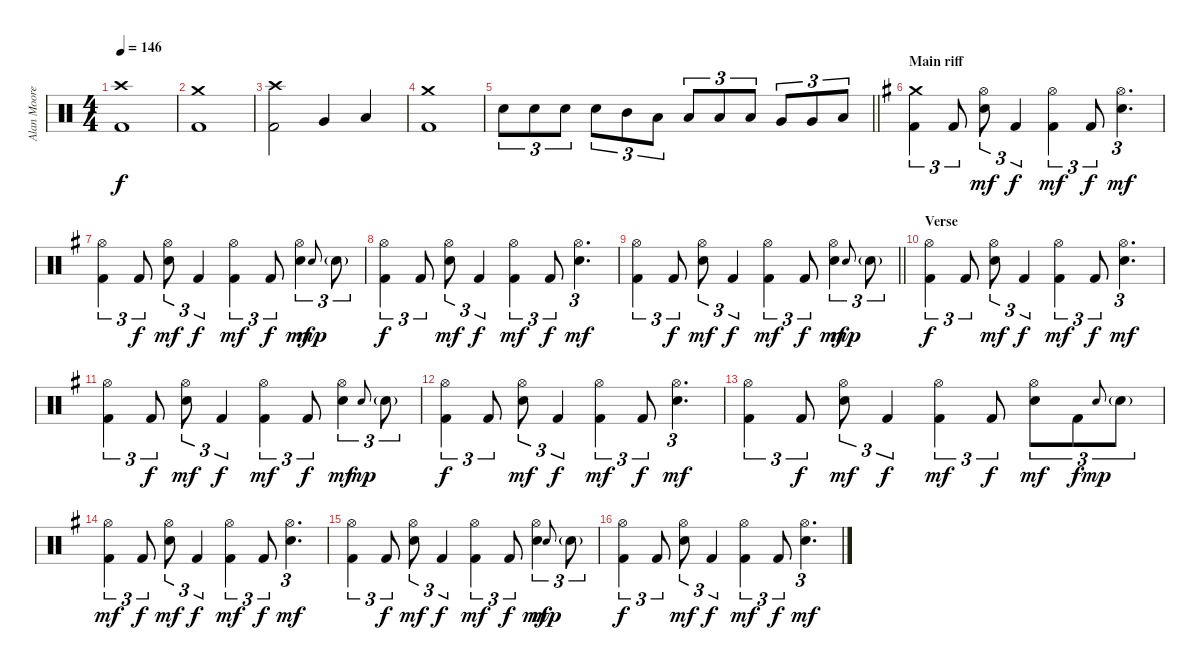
\track ("Alan Moore" "Alan Moore") {instrument percussion}
\staff {score}
\articulation defaults
\ts (4 4)
\tempo 146
\clef neutral
\ks c
("Crash high (hit)" "Kick (hit) 2").1{dy f} |
("Crash medium (hit)" "Kick (hit) 2").1 |
("Crash high (hit)" "Kick (hit) 2").2 "Very Low Tom (hit)".4 "Low Floor Tom (hit)".4 |
("Crash medium (hit)" "Kick (hit) 2").1 |
\barLineRight lightlight "Electric Snare (hit)".8{tu (3 2)} "Electric Snare (hit)".8{tu (3 2)} "Electric Snare (hit)".8{tu (3 2)} "Electric Snare (hit)".8{tu (3 2)} "Mid Tom (hit)".8{tu (3 2)} "Low Floor Tom (hit)".8{tu (3 2)} "Low Tom (hit)".8{tu (3 2)} "Low Tom (hit)".8{tu (3 2)} "Low Floor Tom (hit)".8{tu (3 2)} "Very Low Tom (hit)".8{tu (3 2)} "Very Low Tom (hit)".8{tu (3 2)} "Low Floor Tom (hit)".8{tu (3 2)}
|
\section ("" "Main riff")
\ks eminor
("Crash medium (hit)" "Kick (hit) 2").4{tu (3 2)} "Kick (hit) 2".8{tu (3 2)} ("Hi-Hat (open)" "Electric Snare (hit)").8{tu (3 2) dy mf} "Kick (hit) 2".4{tu (3 2) dy f} ("Hi-Hat (open)" "Kick (hit) 2").4{tu (3 2) dy mf} "Kick (hit) 2".8{tu (3 2) dy f} ("Hi-Hat (open)" "Electric Snare (hit)").4{d tu (3 2) dy mf} |
("Hi-Hat (open)" "Kick (hit) 2").4{tu (3 2)} "Kick (hit) 2".8{tu (3 2) dy f} ("Hi-Hat (open)" "Electric Snare (hit)").8{tu (3 2) dy mf} "Kick (hit) 2".4{tu (3 2) dy f} ("Hi-Hat (open)" "Kick (hit) 2").4{tu (3 2) dy mf} "Kick (hit) 2".8{tu (3 2) dy f} ("Hi-Hat (open)" "Electric Snare (hit)").4{tu (3 2) dy mf} "Electric Snare (hit)".8{gr onbeat dy mp} "Electric Snare (hit)"{g}.8{tu (3 2)} |
("Hi-Hat (open)" "Kick (hit) 2").4{tu (3 2) dy f} "Kick (hit) 2".8{tu (3 2)} ("Hi-Hat (open)" "Electric Snare (hit)").8{tu (3 2) dy mf} "Kick (hit) 2".4{tu (3 2) dy f} ("Hi-Hat (open)" "Kick (hit) 2").4{tu (3 2) dy mf} "Kick (hit) 2".8{tu (3 2) dy f} ("Hi-Hat (open)" "Electric Snare (hit)").4{d tu (3 2) dy mf} |
\barLineRight lightlight
("Hi-Hat (open)" "Kick (hit) 2").4{tu (3 2)} "Kick (hit) 2".8{tu (3 2) dy f} ("Hi-Hat (open)" "Electric Snare (hit)").8{tu (3 2) dy mf} "Kick (hit) 2".4{tu (3 2) dy f} ("Hi-Hat (open)" "Kick (hit) 2").4{tu (3 2) dy mf} "Kick (hit) 2".8{tu (3 2) dy f} ("Hi-Hat (open)" "Electric Snare (hit)").4{tu (3 2) dy mf} "Electric Snare (hit)".8{gr onbeat dy mp} "Electric Snare (hit)"{g}.8{tu (3 2)} |
\section ("" "Verse")
("Hi-Hat (open)" "Kick (hit) 2").4{tu (3 2) dy f} "Kick (hit) 2".8{tu (3 2)} ("Hi-Hat (open)" "Electric Snare (hit)").8{tu (3 2) dy mf} "Kick (hit) 2".4{tu (3 2) dy f} ("Hi-Hat (open)" "Kick (hit) 2").4{tu (3 2) dy mf} "Kick (hit) 2".8{tu (3 2) dy f} ("Hi-Hat (open)" "Electric Snare (hit)").4{d tu (3 2) dy mf} |
("Hi-Hat (open)" "Kick (hit) 2").4{tu (3 2)} "Kick (hit) 2".8{tu (3 2) dy f} ("Hi-Hat (open)" "Electric Snare (hit)").8{tu (3 2) dy mf} "Kick (hit) 2".4{tu (3 2) dy f} ("Hi-Hat (open)" "Kick (hit) 2").4{tu (3 2) dy mf} "Kick (hit) 2".8{tu (3 2) dy f} ("Hi-Hat (open)" "Electric Snare (hit)").4{tu (3 2) dy mf} "Electric Snare (hit)".8{gr onbeat dy mp} "Electric Snare (hit)"{g}.8{tu (3 2)} |
("Hi-Hat (open)" "Kick (hit) 2").4{tu (3 2) dy f} "Kick (hit) 2".8{tu (3 2)} ("Hi-Hat (open)" "Electric Snare (hit)").8{tu (3 2) dy mf} "Kick (hit) 2".4{tu (3 2) dy f} ("Hi-Hat (open)" "Kick (hit) 2").4{tu (3 2) dy mf} "Kick (hit) 2".8{tu (3 2) dy f} ("Hi-Hat (open)" "Electric Snare (hit)").4{d tu (3 2) dy mf} |
("Hi-Hat (open)" "Kick (hit) 2").4{tu (3 2)} "Kick (hit) 2".8{tu (3 2) dy f} ("Hi-Hat (open)" "Electric Snare (hit)").8{tu (3 2) dy mf} "Kick (hit) 2".4{tu (3 2) dy f} ("Hi-Hat (open)" "Kick (hit) 2").4{tu (3 2) dy mf} "Kick (hit) 2".8{tu (3 2) dy f} ("Hi-Hat (open)" "Electric Snare (hit)").8{tu (3 2) dy mf} "Kick (hit) 2".8{tu (3 2) dy f} "Electric Snare (hit)".8{gr onbeat dy mp} "Electric Snare (hit)"{g}.8{tu (3 2)} |
("Hi-Hat (open)" "Kick (hit) 2").4{tu (3 2) dy mf} "Kick (hit) 2".8{tu (3 2) dy f} ("Hi-Hat (open)" "Electric Snare (hit)").8{tu (3 2) dy mf} "Kick (hit) 2".4{tu (3 2) dy f} ("Hi-Hat (open)" "Kick (hit) 2").4{tu (3 2) dy mf} "Kick (hit) 2".8{tu (3 2) dy f} ("Hi-Hat (open)" "Electric Snare (hit)").4{d tu (3 2) dy mf} |
("Hi-Hat (open)" "Kick (hit) 2").4{tu (3 2)} "Kick (hit) 2".8{tu (3 2) dy f} ("Hi-Hat (open)" "Electric Snare (hit)").8{tu (3 2) dy mf} "Kick (hit) 2".4{tu (3 2) dy f} ("Hi-Hat (open)" "Kick (hit) 2").4{tu (3 2) dy mf} "Kick (hit) 2".8{tu (3 2) dy f} ("Hi-Hat (open)" "Electric Snare (hit)").4{tu (3 2) dy mf} "Electric Snare (hit)".8{gr onbeat dy mp} "Electric Snare (hit)"{g}.8{tu (3 2)} |
("Hi-Hat (open)" "Kick (hit) 2").4{tu (3 2) dy f} "Kick (hit) 2".8{tu (3 2)} ("Hi-Hat (open)" "Electric Snare (hit)").8{tu (3 2) dy mf} "Kick (hit) 2".4{tu (3 2) dy f} ("Hi-Hat (open)" "Kick (hit) 2").4{tu (3 2) dy mf} "Kick (hit) 2".8{tu (3 2) dy f} ("Hi-Hat (open)" "Electric Snare (hit)").4{d tu (3 2) dy mf}
